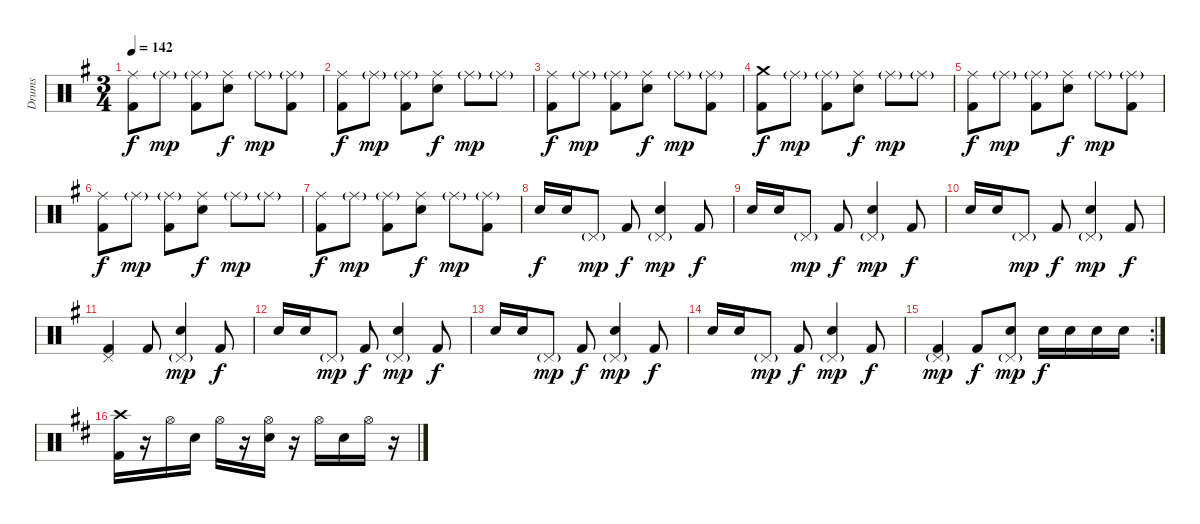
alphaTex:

\track ("Drums" "Drums") {instrument percussion}
\staff {score}
\articulation defaults
\ts (3 4)
\tempo 142
\clef neutral
\ks eminor
("Ride (middle)" "Kick (hit) 2").8{dy f} "Ride (middle)"{g}.8{dy mp} ("Ride (middle)"{g} "Kick (hit) 2").8 ("Ride (middle)" "Electric Snare (hit)").8{dy f} "Ride (middle)"{g}.8{dy mp} ("Ride (middle)"{g} "Kick (hit) 2").8 |
("Ride (middle)" "Kick (hit) 2").8{dy f} "Ride (middle)"{g}.8{dy mp} ("Ride (middle)"{g} "Kick (hit) 2").8 ("Ride (middle)" "Electric Snare (hit)").8{dy f} "Ride (middle)"{g}.8{dy mp} "Ride (middle)"{g}.8 |
("Ride (middle)" "Kick (hit) 2").8{dy f} "Ride (middle)"{g}.8{dy mp} ("Ride (middle)"{g} "Kick (hit) 2").8 ("Ride (middle)" "Electric Snare (hit)").8{dy f} "Ride (middle)"{g}.8{dy mp} ("Ride (middle)"{g} "Kick (hit) 2").8 |
("Crash medium (hit)" "Kick (hit) 2").8{dy f} "Ride (middle)"{g}.8{dy mp} ("Ride (middle)"{g} "Kick (hit) 2").8 ("Ride (middle)" "Electric Snare (hit)").8{dy f} "Ride (middle)"{g}.8{dy mp} "Ride (middle)"{g}.8 |
("Ride (middle)" "Kick (hit) 2").8{dy f} "Ride (middle)"{g}.8{dy mp} ("Ride (middle)"{g} "Kick (hit) 2").8 ("Ride (middle)" "Electric Snare (hit)").8{dy f} "Ride (middle)"{g}.8{dy mp} ("Ride (middle)"{g} "Kick (hit) 2").8 |
("Ride (middle)" "Kick (hit) 2").8{dy f} "Ride (middle)"{g}.8{dy mp} ("Ride (middle)"{g} "Kick (hit) 2").8 ("Ride (middle)" "Electric Snare (hit)").8{dy f} "Ride (middle)"{g}.8{dy mp} "Ride (middle)"{g}.8 |
("Ride (middle)" "Kick (hit) 2").8{dy f} "Ride (middle)"{g}.8{dy mp} ("Ride (middle)"{g} "Kick (hit) 2").8 ("Ride (middle)" "Electric Snare (hit)").8{dy f} "Ride (middle)"{g}.8{dy mp} ("Ride (middle)"{g} "Kick (hit) 2").8 |
"Electric Snare (hit)".16{dy f} "Electric Snare (hit)".16 "Pedal Hi-Hat (hit)"{g}.8{dy mp} "Kick (hit) 2".8{dy f} ("Pedal Hi-Hat (hit)"{g} "Electric Snare (hit)").4{dy mp} "Kick (hit) 2".8{dy f} |
"Electric Snare (hit)".16 "Electric Snare (hit)".16 "Pedal Hi-Hat (hit)"{g}.8{dy mp} "Kick (hit) 2".8{dy f} ("Pedal Hi-Hat (hit)"{g} "Electric Snare (hit)").4{dy mp} "Kick (hit) 2".8{dy f} |
"Electric Snare (hit)".16 "Electric Snare (hit)".16 "Pedal Hi-Hat (hit)"{g}.8{dy mp} "Kick (hit) 2".8{dy f} ("Pedal Hi-Hat (hit)"{g} "Electric Snare (hit)").4{dy mp} "Kick (hit) 2".8{dy f} |
("Pedal Hi-Hat (hit)" "Kick (hit) 2").4 "Kick (hit) 2".8 ("Pedal Hi-Hat (hit)"{g} "Electric Snare (hit)").4{dy mp} "Kick (hit) 2".8{dy f} |
"Electric Snare (hit)".16 "Electric Snare (hit)".16 "Pedal Hi-Hat (hit)"{g}.8{dy mp} "Kick (hit) 2".8{dy f} ("Pedal Hi-Hat (hit)"{g} "Electric Snare (hit)").4{dy mp} "Kick (hit) 2".8{dy f} |
"Electric Snare (hit)".16 "Electric Snare (hit)".16 "Pedal Hi-Hat (hit)"{g}.8{dy mp} "Kick (hit) 2".8{dy f} ("Pedal Hi-Hat (hit)"{g} "Electric Snare (hit)").4{dy mp} "Kick (hit) 2".8{dy f} |
"Electric Snare (hit)".16 "Electric Snare (hit)".16 "Pedal Hi-Hat (hit)"{g}.8{dy mp} "Kick (hit) 2".8{dy f} ("Pedal Hi-Hat (hit)"{g} "Electric Snare (hit)").4{dy mp} "Kick (hit) 2".8{dy f} |
\rc 2
("Pedal Hi-Hat (hit)"{g} "Kick (hit) 2").4{dy mp} "Kick (hit) 2".8{dy f} ("Pedal Hi-Hat (hit)"{g} "Electric Snare (hit)").8{dy mp} "Electric Snare (hit)".16{dy f} "Electric Snare (hit)".16 "Electric Snare (hit)".16 "Electric Snare (hit)".16 |
\ks d
("Crash high (hit)" "Kick (hit) 2").16 r.16 "Hi-Hat (open)".16 "Electric Snare (hit)".16 "Hi-Hat (open)".16 r.16 ("Hi-Hat (open)" "Electric Snare (hit)").16 r.16 "Hi-Hat (open)".16 "Electric Snare (hit)".16 "Hi-Hat (open)".16 r.16
